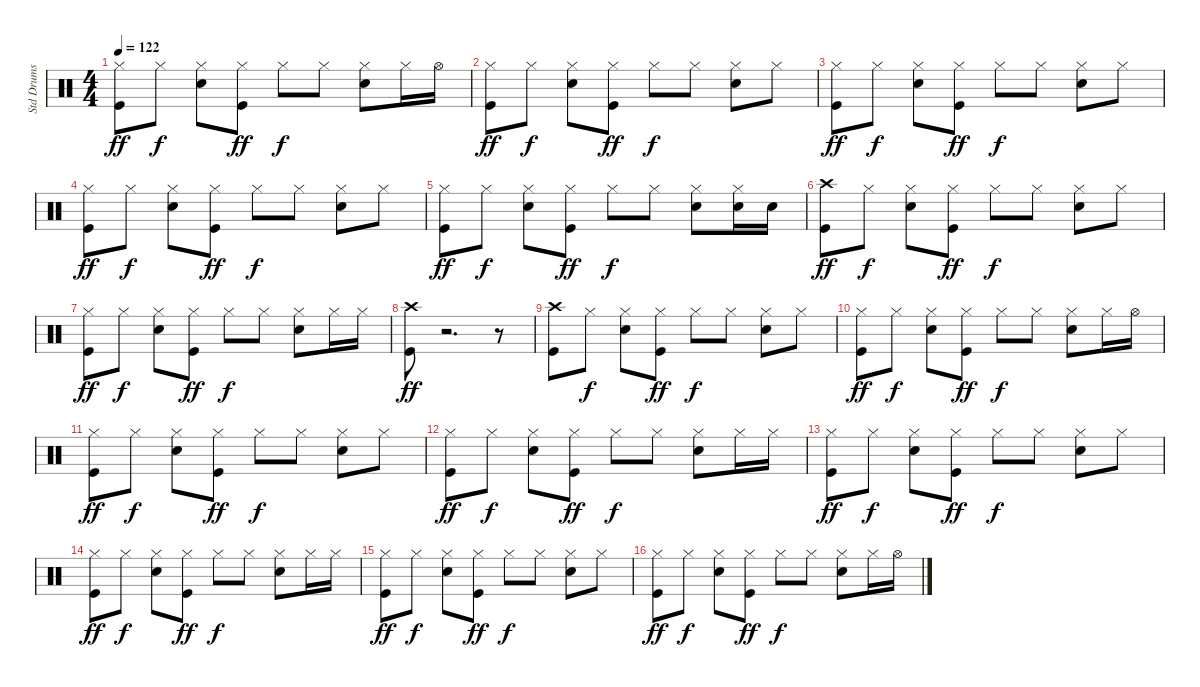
\track ("Std Drums" "Std Drums") {instrument percussion}
\staff {score}
\articulation defaults
\ts (4 4)
\tempo 122
\clef neutral
\ks c
("Hi-Hat (closed)" "Kick (hit)").8{dy ff} "Hi-Hat (closed)".8{dy f} ("Hi-Hat (closed)" "Snare (hit) 2").8 ("Hi-Hat (closed)" "Kick (hit)").8{dy ff} "Hi-Hat (closed)".8{dy f} "Hi-Hat (closed)".8 ("Hi-Hat (closed)" "Snare (hit) 2").8 "Hi-Hat (closed)".16 "Hi-Hat (open)".16 |
("Hi-Hat (closed)" "Kick (hit)").8{dy ff} "Hi-Hat (closed)".8{dy f} ("Hi-Hat (closed)" "Snare (hit) 2").8 ("Hi-Hat (closed)" "Kick (hit)").8{dy ff} "Hi-Hat (closed)".8{dy f} "Hi-Hat (closed)".8 ("Hi-Hat (closed)" "Snare (hit) 2").8 "Hi-Hat (closed)".8 |
("Hi-Hat (closed)" "Kick (hit)").8{dy ff} "Hi-Hat (closed)".8{dy f} ("Hi-Hat (closed)" "Snare (hit) 2").8 ("Hi-Hat (closed)" "Kick (hit)").8{dy ff} "Hi-Hat (closed)".8{dy f} "Hi-Hat (closed)".8 ("Hi-Hat (closed)" "Snare (hit) 2").8 "Hi-Hat (closed)".8 |
("Hi-Hat (closed)" "Kick (hit)").8{dy ff} "Hi-Hat (closed)".8{dy f} ("Hi-Hat (closed)" "Snare (hit) 2").8 ("Hi-Hat (closed)" "Kick (hit)").8{dy ff} "Hi-Hat (closed)".8{dy f} "Hi-Hat (closed)".8 ("Hi-Hat (closed)" "Snare (hit) 2").8 "Hi-Hat (closed)".8 |
("Hi-Hat (closed)" "Kick (hit)").8{dy ff} "Hi-Hat (closed)".8{dy f} ("Hi-Hat (closed)" "Snare (hit) 2").8 ("Hi-Hat (closed)" "Kick (hit)").8{dy ff} "Hi-Hat (closed)".8{dy f} "Hi-Hat (closed)".8 ("Hi-Hat (closed)" "Snare (hit) 2").8 ("Hi-Hat (closed)" "Snare (hit) 2").16 "Snare (hit) 2".16 |
("Kick (hit)" "Crash high (hit)").8{dy ff} "Hi-Hat (closed)".8{dy f} ("Hi-Hat (closed)" "Snare (hit) 2").8 ("Hi-Hat (closed)" "Kick (hit)").8{dy ff} "Hi-Hat (closed)".8{dy f} "Hi-Hat (closed)".8 ("Hi-Hat (closed)" "Snare (hit) 2").8 "Hi-Hat (closed)".8 |
("Hi-Hat (closed)" "Kick (hit)").8{dy ff} "Hi-Hat (closed)".8{dy f} ("Hi-Hat (closed)" "Snare (hit) 2").8 ("Hi-Hat (closed)" "Kick (hit)").8{dy ff} "Hi-Hat (closed)".8{dy f} "Hi-Hat (closed)".8 ("Hi-Hat (closed)" "Snare (hit) 2").8 "Hi-Hat (closed)".16 "Hi-Hat (closed)".16 |
("Kick (hit)" "Crash high (hit)").8{dy ff} r.2{d} r.8 |
("Kick (hit)" "Crash high (hit)").8 "Hi-Hat (closed)".8{dy f} ("Hi-Hat (closed)" "Snare (hit) 2").8 ("Hi-Hat (closed)" "Kick (hit)").8{dy ff} "Hi-Hat (closed)".8{dy f} "Hi-Hat (closed)".8 ("Hi-Hat (closed)" "Snare (hit) 2").8 "Hi-Hat (closed)".8 |
("Hi-Hat (closed)" "Kick (hit)").8{dy ff} "Hi-Hat (closed)".8{dy f} ("Hi-Hat (closed)" "Snare (hit) 2").8 ("Hi-Hat (closed)" "Kick (hit)").8{dy ff} "Hi-Hat (closed)".8{dy f} "Hi-Hat (closed)".8 ("Hi-Hat (closed)" "Snare (hit) 2").8 "Hi-Hat (closed)".16 "Hi-Hat (open)".16 |
("Hi-Hat (closed)" "Kick (hit)").8{dy ff} "Hi-Hat (closed)".8{dy f} ("Hi-Hat (closed)" "Snare (hit) 2").8 ("Hi-Hat (closed)" "Kick (hit)").8{dy ff} "Hi-Hat (closed)".8{dy f} "Hi-Hat (closed)".8 ("Hi-Hat (closed)" "Snare (hit) 2").8 "Hi-Hat (closed)".8 |
("Hi-Hat (closed)" "Kick (hit)").8{dy ff} "Hi-Hat (closed)".8{dy f} ("Hi-Hat (closed)" "Snare (hit) 2").8 ("Hi-Hat (closed)" "Kick (hit)").8{dy ff} "Hi-Hat (closed)".8{dy f} "Hi-Hat (closed)".8 ("Hi-Hat (closed)" "Snare (hit) 2").8 "Hi-Hat (closed)".16 "Hi-Hat (closed)".16 |
("Hi-Hat (closed)" "Kick (hit)").8{dy ff} "Hi-Hat (closed)".8{dy f} ("Hi-Hat (closed)" "Snare (hit) 2").8 ("Hi-Hat (closed)" "Kick (hit)").8{dy ff} "Hi-Hat (closed)".8{dy f} "Hi-Hat (closed)".8 ("Hi-Hat (closed)" "Snare (hit) 2").8 "Hi-Hat (closed)".8 |
("Hi-Hat (closed)" "Kick (hit)").8{dy ff} "Hi-Hat (closed)".8{dy f} ("Hi-Hat (closed)" "Snare (hit) 2").8 ("Hi-Hat (closed)" "Kick (hit)").8{dy ff} "Hi-Hat (closed)".8{dy f} "Hi-Hat (closed)".8 ("Hi-Hat (closed)" "Snare (hit) 2").8 "Hi-Hat (closed)".16 "Hi-Hat (closed)".16 |
("Hi-Hat (closed)" "Kick (hit)").8{dy ff} "Hi-Hat (closed)".8{dy f} ("Hi-Hat (closed)" "Snare (hit) 2").8 ("Hi-Hat (closed)" "Kick (hit)").8{dy ff} "Hi-Hat (closed)".8{dy f} "Hi-Hat (closed)".8 ("Hi-Hat (closed)" "Snare (hit) 2").8 "Hi-Hat (closed)".8 |
("Hi-Hat (closed)" "Kick (hit)").8{dy ff} "Hi-Hat (closed)".8{dy f} ("Hi-Hat (closed)" "Snare (hit) 2").8 ("Hi-Hat (closed)" "Kick (hit)").8{dy ff} "Hi-Hat (closed)".8{dy f} "Hi-Hat (closed)".8 ("Hi-Hat (closed)" "Snare (hit) 2").8 "Hi-Hat (closed)".16 "Hi-Hat (open)".16
